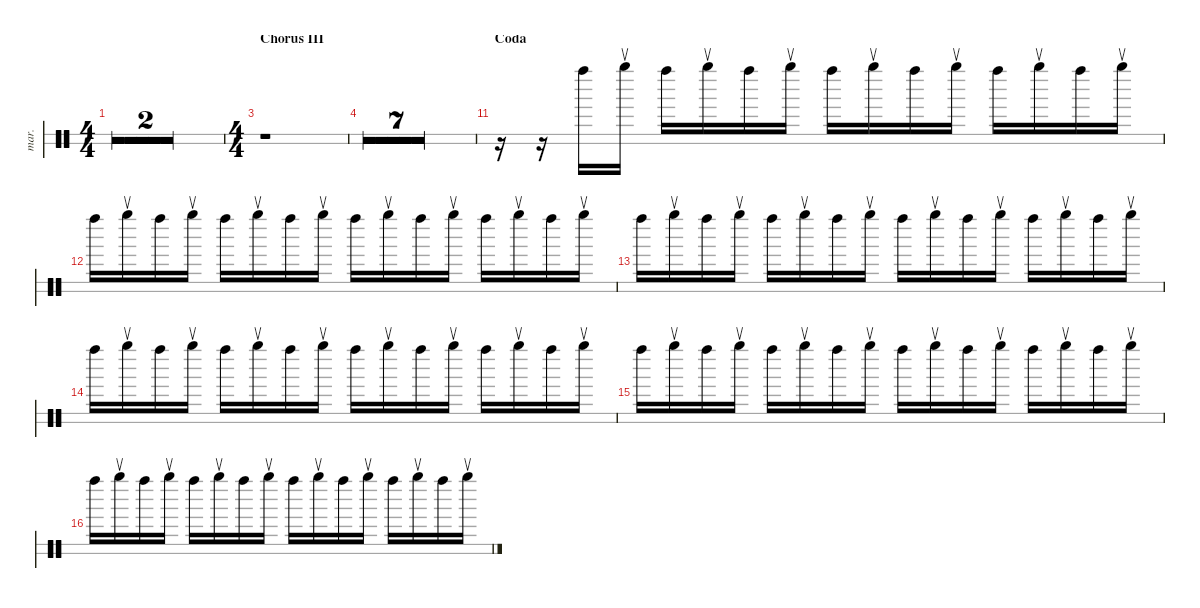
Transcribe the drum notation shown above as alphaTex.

\defaultSystemsLayout 4
\hideDynamics
\bracketExtendMode nobrackets
\otherSystemsTrackNameOrientation horizontal
\track ("Maracas" "mar.") {defaultSystemsLayout 4 multiBarRest instrument percussion}
\staff {score 2}
\articulation defaults
\ts (4 4)
\tempo 70
\clef neutral
\ks c
r.1{dy mf} |
\ts (2 4)
\beaming (8 2 2)
r.2 |
\ts (4 4)
\beaming (8 2 2 2 2)
\section ("" "Chorus III")
r.1 |
r.1 |
r.1 |
r.1 |
r.1 |
r.1 |
r.1 |
r.1 |
\section ("" "Coda")
r.16 r.16 "Right Maraca (hit)".16 "Right Maraca (return)".16{dy f} "Right Maraca (hit)".16{dy ff} "Right Maraca (return)".16{dy f} "Right Maraca (hit)".16{dy ff} "Right Maraca (return)".16{dy f} "Right Maraca (hit)".16{dy ff} "Right Maraca (return)".16{dy f} "Right Maraca (hit)".16{dy ff} "Right Maraca (return)".16{dy f} "Right Maraca (hit)".16{dy ff} "Right Maraca (return)".16{dy f} "Right Maraca (hit)".16{dy ff} "Right Maraca (return)".16{dy f} |
"Right Maraca (hit)".16{dy ff} "Right Maraca (return)".16{dy f} "Right Maraca (hit)".16{dy ff} "Right Maraca (return)".16{dy f} "Right Maraca (hit)".16{dy ff} "Right Maraca (return)".16{dy f} "Right Maraca (hit)".16{dy ff} "Right Maraca (return)".16{dy f} "Right Maraca (hit)".16{dy ff} "Right Maraca (return)".16{dy f} "Right Maraca (hit)".16{dy ff} "Right Maraca (return)".16{dy f} "Right Maraca (hit)".16{dy ff} "Right Maraca (return)".16{dy f} "Right Maraca (hit)".16{dy ff} "Right Maraca (return)".16{dy f} |
"Right Maraca (hit)".16{dy ff} "Right Maraca (return)".16{dy f} "Right Maraca (hit)".16{dy ff} "Right Maraca (return)".16{dy f} "Right Maraca (hit)".16{dy ff} "Right Maraca (return)".16{dy f} "Right Maraca (hit)".16{dy ff} "Right Maraca (return)".16{dy f} "Right Maraca (hit)".16{dy ff} "Right Maraca (return)".16{dy f} "Right Maraca (hit)".16{dy ff} "Right Maraca (return)".16{dy f} "Right Maraca (hit)".16{dy ff} "Right Maraca (return)".16{dy f} "Right Maraca (hit)".16{dy ff} "Right Maraca (return)".16{dy f} |
"Right Maraca (hit)".16{dy ff} "Right Maraca (return)".16{dy f} "Right Maraca (hit)".16{dy ff} "Right Maraca (return)".16{dy f} "Right Maraca (hit)".16{dy ff} "Right Maraca (return)".16{dy f} "Right Maraca (hit)".16{dy ff} "Right Maraca (return)".16{dy f} "Right Maraca (hit)".16{dy ff} "Right Maraca (return)".16{dy f} "Right Maraca (hit)".16{dy ff} "Right Maraca (return)".16{dy f} "Right Maraca (hit)".16{dy ff} "Right Maraca (return)".16{dy f} "Right Maraca (hit)".16{dy ff} "Right Maraca (return)".16{dy f} |
"Right Maraca (hit)".16{dy ff} "Right Maraca (return)".16{dy f} "Right Maraca (hit)".16{dy ff} "Right Maraca (return)".16{dy f} "Right Maraca (hit)".16{dy ff} "Right Maraca (return)".16{dy f} "Right Maraca (hit)".16{dy ff} "Right Maraca (return)".16{dy f} "Right Maraca (hit)".16{dy ff} "Right Maraca (return)".16{dy f} "Right Maraca (hit)".16{dy ff} "Right Maraca (return)".16{dy f} "Right Maraca (hit)".16{dy ff} "Right Maraca (return)".16{dy f} "Right Maraca (hit)".16{dy ff} "Right Maraca (return)".16{dy f} |
"Right Maraca (hit)".16{dy ff} "Right Maraca (return)".16{dy f} "Right Maraca (hit)".16{dy ff} "Right Maraca (return)".16{dy f} "Right Maraca (hit)".16{dy ff} "Right Maraca (return)".16{dy f} "Right Maraca (hit)".16{dy ff} "Right Maraca (return)".16{dy f} "Right Maraca (hit)".16{dy ff} "Right Maraca (return)".16{dy f} "Right Maraca (hit)".16{dy ff} "Right Maraca (return)".16{dy f} "Right Maraca (hit)".16{dy ff} "Right Maraca (return)".16{dy f} "Right Maraca (hit)".16{dy ff} "Right Maraca (return)".16{dy f}
